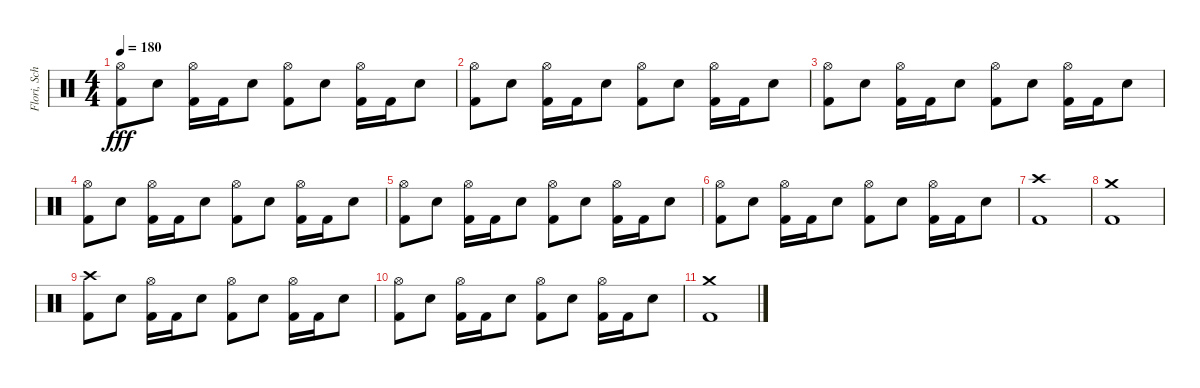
\track ("Flori, Schlagzeug" "Flori, Sch") {instrument percussion}
\staff {score}
\articulation defaults
\ts (4 4)
\tempo 180
\clef neutral
\ks c
("Hi-Hat (open)" "Kick (hit) 2").8{dy fff} "Electric Snare (hit)".8 ("Hi-Hat (open)" "Kick (hit) 2").16 "Kick (hit) 2".16 "Electric Snare (hit)".8 ("Hi-Hat (open)" "Kick (hit) 2").8 "Electric Snare (hit)".8 ("Hi-Hat (open)" "Kick (hit) 2").16 "Kick (hit) 2".16 "Electric Snare (hit)".8 |
("Hi-Hat (open)" "Kick (hit) 2").8 "Electric Snare (hit)".8 ("Hi-Hat (open)" "Kick (hit) 2").16 "Kick (hit) 2".16 "Electric Snare (hit)".8 ("Hi-Hat (open)" "Kick (hit) 2").8 "Electric Snare (hit)".8 ("Hi-Hat (open)" "Kick (hit) 2").16 "Kick (hit) 2".16 "Electric Snare (hit)".8 |
("Hi-Hat (open)" "Kick (hit) 2").8 "Electric Snare (hit)".8 ("Hi-Hat (open)" "Kick (hit) 2").16 "Kick (hit) 2".16 "Electric Snare (hit)".8 ("Hi-Hat (open)" "Kick (hit) 2").8 "Electric Snare (hit)".8 ("Hi-Hat (open)" "Kick (hit) 2").16 "Kick (hit) 2".16 "Electric Snare (hit)".8 |
("Hi-Hat (open)" "Kick (hit) 2").8 "Electric Snare (hit)".8 ("Hi-Hat (open)" "Kick (hit) 2").16 "Kick (hit) 2".16 "Electric Snare (hit)".8 ("Hi-Hat (open)" "Kick (hit) 2").8 "Electric Snare (hit)".8 ("Hi-Hat (open)" "Kick (hit) 2").16 "Kick (hit) 2".16 "Electric Snare (hit)".8 |
("Hi-Hat (open)" "Kick (hit) 2").8 "Electric Snare (hit)".8 ("Hi-Hat (open)" "Kick (hit) 2").16 "Kick (hit) 2".16 "Electric Snare (hit)".8 ("Hi-Hat (open)" "Kick (hit) 2").8 "Electric Snare (hit)".8 ("Hi-Hat (open)" "Kick (hit) 2").16 "Kick (hit) 2".16 "Electric Snare (hit)".8 |
("Hi-Hat (open)" "Kick (hit) 2").8 "Electric Snare (hit)".8 ("Hi-Hat (open)" "Kick (hit) 2").16 "Kick (hit) 2".16 "Electric Snare (hit)".8 ("Hi-Hat (open)" "Kick (hit) 2").8 "Electric Snare (hit)".8 ("Hi-Hat (open)" "Kick (hit) 2").16 "Kick (hit) 2".16 "Electric Snare (hit)".8 |
("Crash high (hit)" "Kick (hit) 2").1 |
("Crash medium (hit)" "Kick (hit) 2").1 |
("Crash high (hit)" "Kick (hit) 2").8 "Electric Snare (hit)".8 ("Hi-Hat (open)" "Kick (hit) 2").16 "Kick (hit) 2".16 "Electric Snare (hit)".8 ("Hi-Hat (open)" "Kick (hit) 2").8 "Electric Snare (hit)".8 ("Hi-Hat (open)" "Kick (hit) 2").16 "Kick (hit) 2".16 "Electric Snare (hit)".8 |
("Hi-Hat (open)" "Kick (hit) 2").8 "Electric Snare (hit)".8 ("Hi-Hat (open)" "Kick (hit) 2").16 "Kick (hit) 2".16 "Electric Snare (hit)".8 ("Hi-Hat (open)" "Kick (hit) 2").8 "Electric Snare (hit)".8 ("Hi-Hat (open)" "Kick (hit) 2").16 "Kick (hit) 2".16 "Electric Snare (hit)".8 |
("Crash medium (hit)" "Kick (hit) 2").1
